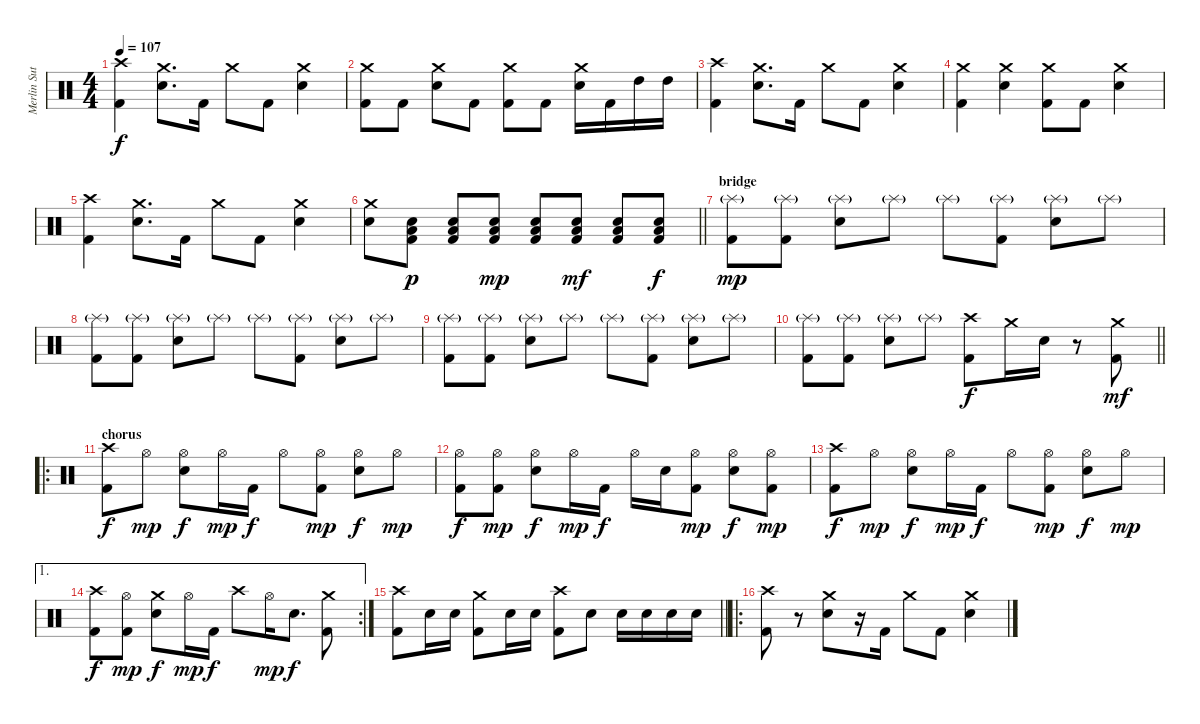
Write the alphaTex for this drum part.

\track ("Merlin Sutter" "Merlin Sut") {instrument percussion}
\staff {score}
\articulation defaults
\ts (4 4)
\tempo 107
\clef neutral
\ks c
("Crash high (hit)" "Kick (hit) 2").4{dy f} ("Crash medium (hit)" "Snare (hit) 2").8{d} "Kick (hit) 2".16 "Crash medium (hit)".8 "Kick (hit) 2".8 ("Crash medium (hit)" "Snare (hit) 2").4 |
("Crash medium (hit)" "Kick (hit) 2").8 "Kick (hit) 2".8 ("Crash medium (hit)" "Snare (hit) 2").8 "Kick (hit) 2".8 ("Crash medium (hit)" "Kick (hit) 2").8 "Kick (hit) 2".8 ("Crash medium (hit)" "Snare (hit) 2").16 "Kick (hit) 2".16 "High Tom (hit)".16 "High Tom (hit)".16 |
("Crash high (hit)" "Kick (hit) 2").4 ("Crash medium (hit)" "Snare (hit) 2").8{d} "Kick (hit) 2".16 "Crash medium (hit)".8 "Kick (hit) 2".8 ("Crash medium (hit)" "Snare (hit) 2").4 |
("Crash medium (hit)" "Kick (hit) 2").4 ("Crash medium (hit)" "Snare (hit) 2").4 ("Crash medium (hit)" "Kick (hit) 2").8 "Kick (hit) 2".8 ("Crash medium (hit)" "Snare (hit) 2").4 |
("Crash high (hit)" "Kick (hit) 2").4 ("Crash medium (hit)" "Snare (hit) 2").8{d} "Kick (hit) 2".16 "Crash medium (hit)".8 "Kick (hit) 2".8 ("Crash medium (hit)" "Snare (hit) 2").4 |
\barLineRight lightlight
("Crash medium (hit)" "Snare (hit) 2").8 ("Low Tom (hit)" "Snare (hit) 2" "Kick (hit) 2").8{dy p} ("Low Tom (hit)" "Snare (hit) 2" "Kick (hit) 2").8 ("Low Tom (hit)" "Snare (hit) 2" "Kick (hit) 2").8{dy mp} ("Low Tom (hit)" "Snare (hit) 2" "Kick (hit) 2").8 ("Low Tom (hit)" "Snare (hit) 2" "Kick (hit) 2").8{dy mf} ("Low Tom (hit)" "Snare (hit) 2" "Kick (hit) 2").8 ("Low Tom (hit)" "Snare (hit) 2" "Kick (hit) 2").8{dy f} |
\section ("" "bridge")
("Splash (hit)"{g} "Kick (hit) 2").8{dy mp} ("Splash (hit)"{g} "Kick (hit) 2").8 ("Splash (hit)"{g} "Snare (hit) 2").8 "Splash (hit)"{g}.8 "Splash (hit)"{g}.8 ("Splash (hit)"{g} "Kick (hit) 2").8 ("Splash (hit)"{g} "Snare (hit) 2").8 "Splash (hit)"{g}.8 |
("Splash (hit)"{g} "Kick (hit) 2").8 ("Splash (hit)"{g} "Kick (hit) 2").8 ("Splash (hit)"{g} "Snare (hit) 2").8 "Splash (hit)"{g}.8 "Splash (hit)"{g}.8 ("Splash (hit)"{g} "Kick (hit) 2").8 ("Splash (hit)"{g} "Snare (hit) 2").8 "Splash (hit)"{g}.8 |
("Splash (hit)"{g} "Kick (hit) 2").8 ("Splash (hit)"{g} "Kick (hit) 2").8 ("Splash (hit)"{g} "Snare (hit) 2").8 "Splash (hit)"{g}.8 "Splash (hit)"{g}.8 ("Splash (hit)"{g} "Kick (hit) 2").8 ("Splash (hit)"{g} "Snare (hit) 2").8 "Splash (hit)"{g}.8 |
\barLineRight lightlight
("Splash (hit)"{g} "Kick (hit) 2").8 ("Splash (hit)"{g} "Kick (hit) 2").8 ("Splash (hit)"{g} "Snare (hit) 2").8 "Splash (hit)"{g}.8 ("Crash high (hit)" "Kick (hit) 2").8{dy f} "Crash medium (hit)".16 "Snare (hit) 2".16 r.8 ("Crash medium (hit)" "Kick (hit) 2").8{dy mf} |
\ro
\section ("" "chorus")
("Crash high (hit)" "Kick (hit) 2").8{dy f} "Hi-Hat (open)".8{dy mp} ("Hi-Hat (open)" "Snare (hit) 2").8{dy f} "Hi-Hat (open)".16{dy mp} "Kick (hit) 2".16{dy f} "Hi-Hat (open)".8 ("Hi-Hat (open)" "Kick (hit) 2").8{dy mp} ("Hi-Hat (open)" "Snare (hit) 2").8{dy f} "Hi-Hat (open)".8{dy mp} |
("Hi-Hat (open)" "Kick (hit) 2").8{dy f} ("Hi-Hat (open)" "Kick (hit) 2").8{dy mp} ("Hi-Hat (open)" "Snare (hit) 2").8{dy f} "Hi-Hat (open)".16{dy mp} "Kick (hit) 2".16{dy f} "Hi-Hat (open)".16 "Snare (hit) 2".16 ("Hi-Hat (open)" "Kick (hit) 2").8{dy mp} ("Hi-Hat (open)" "Snare (hit) 2").8{dy f} ("Hi-Hat (open)" "Kick (hit) 2").8{dy mp} |
("Crash high (hit)" "Kick (hit) 2").8{dy f} "Hi-Hat (open)".8{dy mp} ("Hi-Hat (open)" "Snare (hit) 2").8{dy f} "Hi-Hat (open)".16{dy mp} "Kick (hit) 2".16{dy f} "Hi-Hat (open)".8 ("Hi-Hat (open)" "Kick (hit) 2").8{dy mp} ("Hi-Hat (open)" "Snare (hit) 2").8{dy f} "Hi-Hat (open)".8{dy mp} |
\ae 1
\rc 2
("Crash high (hit)" "Kick (hit) 2").8{dy f} ("Hi-Hat (open)" "Kick (hit) 2").8{dy mp} ("Crash medium (hit)" "Snare (hit) 2").8{dy f} "Hi-Hat (open)".16{dy mp} "Kick (hit) 2".16{dy f} "Crash high (hit)".8 "Hi-Hat (open)".16{dy mp} "Snare (hit) 2".8{d dy f} ("Crash medium (hit)" "Kick (hit) 2").8 |
\barLineRight lightlight
("Crash high (hit)" "Kick (hit) 2").8 "Snare (hit) 2".16 "Snare (hit) 2".16 ("Crash medium (hit)" "Kick (hit) 2").8 "Snare (hit) 2".16 "Snare (hit) 2".16 ("Crash high (hit)" "Kick (hit) 2").8 "Snare (hit) 2".8 "Snare (hit) 2".16 "Snare (hit) 2".16 "Snare (hit) 2".16 "Snare (hit) 2".16 |
\ro
\section ("" "")
("Crash high (hit)" "Kick (hit) 2").8 r.8 ("Crash medium (hit)" "Snare (hit) 2").8 r.16 "Kick (hit) 2".16 "Crash medium (hit)".8 "Kick (hit) 2".8 ("Crash medium (hit)" "Snare (hit) 2").4
